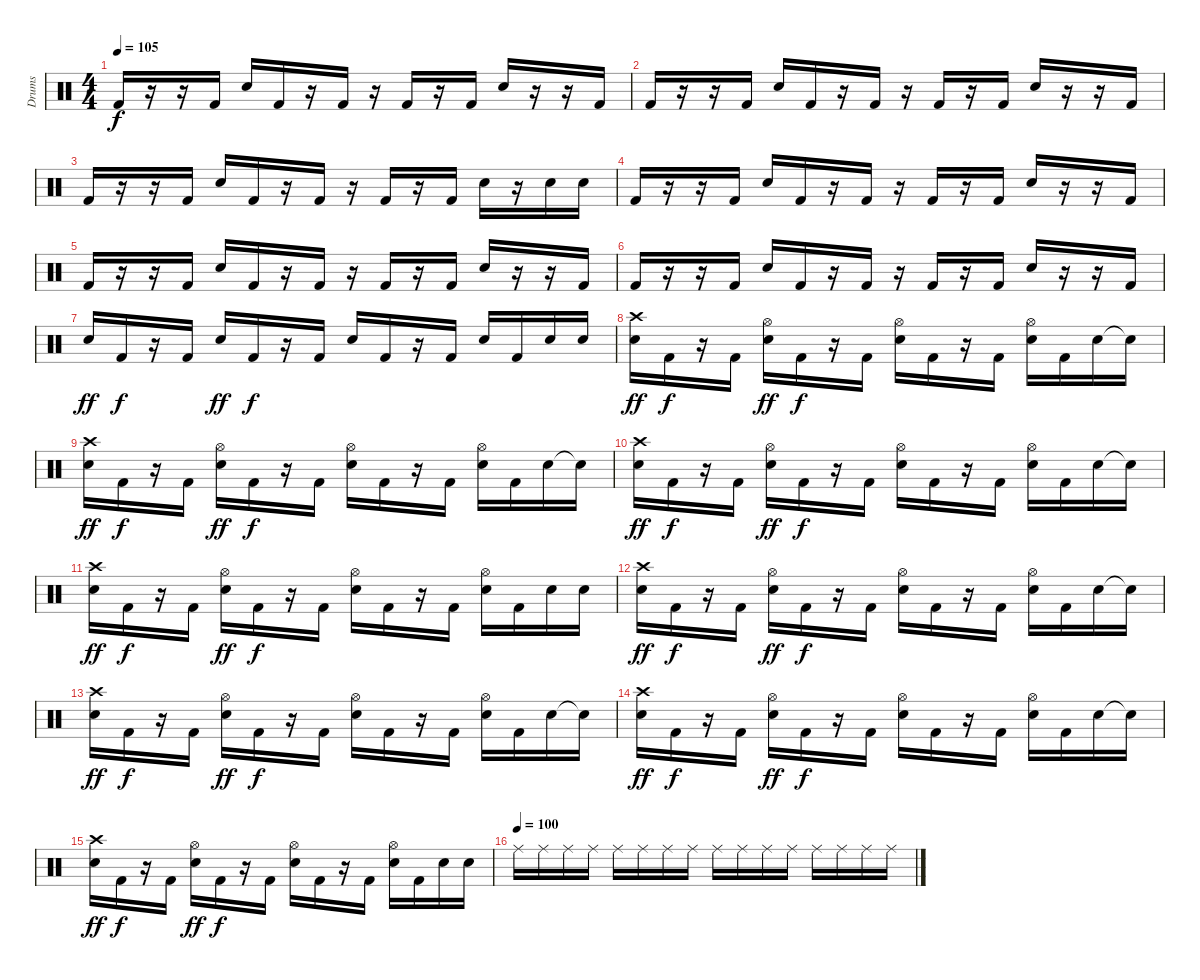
\track ("Drums" "Drums") {instrument percussion}
\staff {score}
\articulation defaults
\ts (4 4)
\tempo 105
\clef neutral
\ks c "Kick (hit) 2".16{dy f}
r.16 r.16 "Kick (hit) 2".16 "Electric Snare (hit)".16 "Kick (hit) 2".16 r.16 "Kick (hit) 2".16 r.16 "Kick (hit) 2".16 r.16 "Kick (hit) 2".16 "Electric Snare (hit)".16 r.16 r.16 "Kick (hit) 2".16 |
"Kick (hit) 2".16 r.16 r.16 "Kick (hit) 2".16 "Electric Snare (hit)".16 "Kick (hit) 2".16 r.16 "Kick (hit) 2".16 r.16 "Kick (hit) 2".16 r.16 "Kick (hit) 2".16 "Electric Snare (hit)".16 r.16 r.16 "Kick (hit) 2".16 |
"Kick (hit) 2".16 r.16 r.16 "Kick (hit) 2".16 "Electric Snare (hit)".16 "Kick (hit) 2".16 r.16 "Kick (hit) 2".16 r.16 "Kick (hit) 2".16 r.16 "Kick (hit) 2".16 "Electric Snare (hit)".16 r.16 "Electric Snare (hit)".16 "Electric Snare (hit)".16 |
"Kick (hit) 2".16 r.16 r.16 "Kick (hit) 2".16 "Electric Snare (hit)".16 "Kick (hit) 2".16 r.16 "Kick (hit) 2".16 r.16 "Kick (hit) 2".16 r.16 "Kick (hit) 2".16 "Electric Snare (hit)".16 r.16 r.16 "Kick (hit) 2".16 |
"Kick (hit) 2".16 r.16 r.16 "Kick (hit) 2".16 "Electric Snare (hit)".16 "Kick (hit) 2".16 r.16 "Kick (hit) 2".16 r.16 "Kick (hit) 2".16 r.16 "Kick (hit) 2".16 "Electric Snare (hit)".16 r.16 r.16 "Kick (hit) 2".16 |
"Kick (hit) 2".16 r.16 r.16 "Kick (hit) 2".16 "Electric Snare (hit)".16 "Kick (hit) 2".16 r.16 "Kick (hit) 2".16 r.16 "Kick (hit) 2".16 r.16 "Kick (hit) 2".16 "Electric Snare (hit)".16 r.16 r.16 "Kick (hit) 2".16 |
"Electric Snare (hit)".16{dy ff} "Kick (hit) 2".16{dy f} r.16 "Kick (hit) 2".16 "Electric Snare (hit)".16{dy ff} "Kick (hit) 2".16{dy f} r.16 "Kick (hit) 2".16 "Electric Snare (hit)".16 "Kick (hit) 2".16 r.16 "Kick (hit) 2".16 "Electric Snare (hit)".16 "Kick (hit) 2".16 "Electric Snare (hit)".16 "Electric Snare (hit)".16 |
("Crash high (hit)" "Electric Snare (hit)").16{dy ff} "Kick (hit) 2".16{dy f} r.16 "Kick (hit) 2".16 ("Hi-Hat (open)" "Electric Snare (hit)").16{dy ff} "Kick (hit) 2".16{dy f} r.16 "Kick (hit) 2".16 ("Hi-Hat (open)" "Electric Snare (hit)").16 "Kick (hit) 2".16 r.16 "Kick (hit) 2".16 ("Hi-Hat (open)" "Electric Snare (hit)").16 "Kick (hit) 2".16 "Electric Snare (hit)".16 "Electric Snare (hit)"{t}.16 |
("Crash high (hit)" "Electric Snare (hit)").16{dy ff} "Kick (hit) 2".16{dy f} r.16 "Kick (hit) 2".16 ("Hi-Hat (open)" "Electric Snare (hit)").16{dy ff} "Kick (hit) 2".16{dy f} r.16 "Kick (hit) 2".16 ("Hi-Hat (open)" "Electric Snare (hit)").16 "Kick (hit) 2".16 r.16 "Kick (hit) 2".16 ("Hi-Hat (open)" "Electric Snare (hit)").16 "Kick (hit) 2".16 "Electric Snare (hit)".16 "Electric Snare (hit)"{t}.16 |
("Crash high (hit)" "Electric Snare (hit)").16{dy ff} "Kick (hit) 2".16{dy f} r.16 "Kick (hit) 2".16 ("Hi-Hat (open)" "Electric Snare (hit)").16{dy ff} "Kick (hit) 2".16{dy f} r.16 "Kick (hit) 2".16 ("Hi-Hat (open)" "Electric Snare (hit)").16 "Kick (hit) 2".16 r.16 "Kick (hit) 2".16 ("Hi-Hat (open)" "Electric Snare (hit)").16 "Kick (hit) 2".16 "Electric Snare (hit)".16 "Electric Snare (hit)"{t}.16 |
("Crash high (hit)" "Electric Snare (hit)").16{dy ff} "Kick (hit) 2".16{dy f} r.16 "Kick (hit) 2".16 ("Hi-Hat (open)" "Electric Snare (hit)").16{dy ff} "Kick (hit) 2".16{dy f} r.16 "Kick (hit) 2".16 ("Hi-Hat (open)" "Electric Snare (hit)").16 "Kick (hit) 2".16 r.16 "Kick (hit) 2".16 ("Hi-Hat (open)" "Electric Snare (hit)").16 "Kick (hit) 2".16 "Electric Snare (hit)".16 "Electric Snare (hit)".16 |
("Crash high (hit)" "Electric Snare (hit)").16{dy ff} "Kick (hit) 2".16{dy f} r.16 "Kick (hit) 2".16 ("Hi-Hat (open)" "Electric Snare (hit)").16{dy ff} "Kick (hit) 2".16{dy f} r.16 "Kick (hit) 2".16 ("Hi-Hat (open)" "Electric Snare (hit)").16 "Kick (hit) 2".16 r.16 "Kick (hit) 2".16 ("Hi-Hat (open)" "Electric Snare (hit)").16 "Kick (hit) 2".16 "Electric Snare (hit)".16 "Electric Snare (hit)"{t}.16 |
("Crash high (hit)" "Electric Snare (hit)").16{dy ff} "Kick (hit) 2".16{dy f} r.16 "Kick (hit) 2".16 ("Hi-Hat (open)" "Electric Snare (hit)").16{dy ff} "Kick (hit) 2".16{dy f} r.16 "Kick (hit) 2".16 ("Hi-Hat (open)" "Electric Snare (hit)").16 "Kick (hit) 2".16 r.16 "Kick (hit) 2".16 ("Hi-Hat (open)" "Electric Snare (hit)").16 "Kick (hit) 2".16 "Electric Snare (hit)".16 "Electric Snare (hit)"{t}.16 |
("Crash high (hit)" "Electric Snare (hit)").16{dy ff} "Kick (hit) 2".16{dy f} r.16 "Kick (hit) 2".16 ("Hi-Hat (open)" "Electric Snare (hit)").16{dy ff} "Kick (hit) 2".16{dy f} r.16 "Kick (hit) 2".16 ("Hi-Hat (open)" "Electric Snare (hit)").16 "Kick (hit) 2".16 r.16 "Kick (hit) 2".16 ("Hi-Hat (open)" "Electric Snare (hit)").16 "Kick (hit) 2".16 "Electric Snare (hit)".16 "Electric Snare (hit)"{t}.16 |
("Crash high (hit)" "Electric Snare (hit)").16{dy ff} "Kick (hit) 2".16{dy f} r.16 "Kick (hit) 2".16 ("Hi-Hat (open)" "Electric Snare (hit)").16{dy ff} "Kick (hit) 2".16{dy f} r.16 "Kick (hit) 2".16 ("Hi-Hat (open)" "Electric Snare (hit)").16 "Kick (hit) 2".16 r.16 "Kick (hit) 2".16 ("Hi-Hat (open)" "Electric Snare (hit)").16 "Kick (hit) 2".16 "Electric Snare (hit)".16 "Electric Snare (hit)".16 |
\tempo (100)
"Ride (middle)".16 "Ride (middle)".16 "Ride (middle)".16 "Ride (middle)".16 "Ride (middle)".16 "Ride (middle)".16 "Ride (middle)".16 "Ride (middle)".16 "Ride (middle)".16 "Ride (middle)".16 "Ride (middle)".16 "Ride (middle)".16 "Ride (middle)".16 "Ride (middle)".16 "Ride (middle)".16 "Ride (middle)".16
